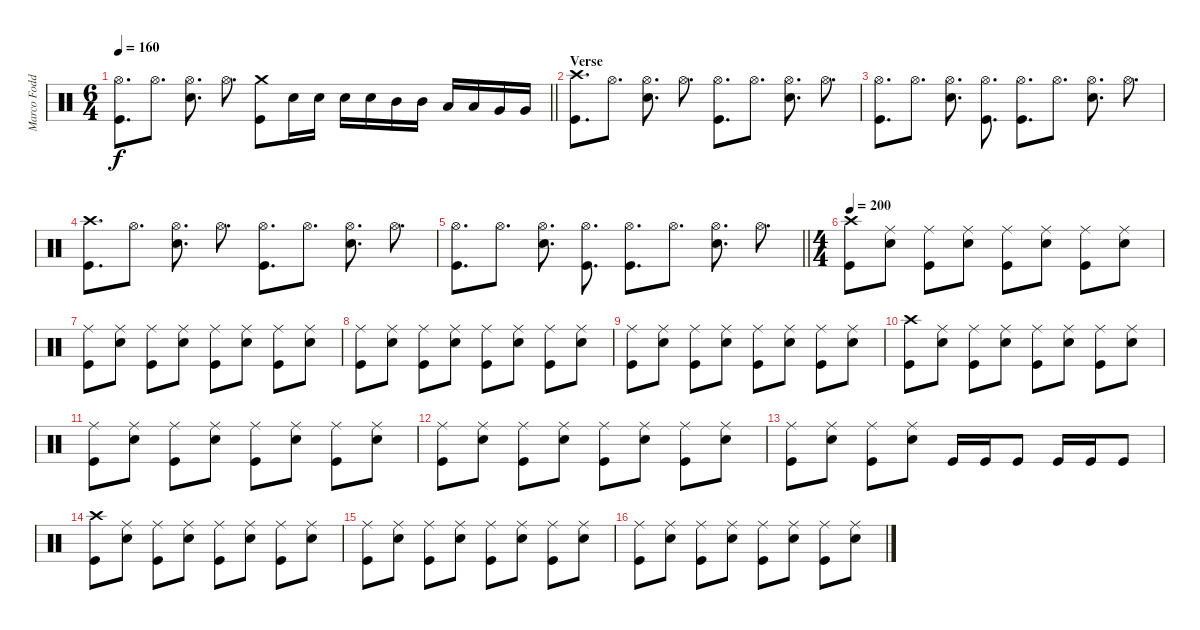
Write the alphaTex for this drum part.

\track ("Marco Foddis" "Marco Fodd") {instrument percussion}
\staff {score}
\articulation defaults
\ts (6 4)
\tempo 160
\clef neutral
\barLineRight lightlight
\ks c
("Hi-Hat (open)" "Kick (hit)").8{d dy f} "Hi-Hat (open)".8{d} ("Hi-Hat (open)" "Snare (hit) 2").8{d} "Hi-Hat (open)".8{d} ("Crash medium (hit)" "Kick (hit)").8 "Snare (hit) 2".16 "Snare (hit) 2".16 "Snare (hit) 2".16 "Snare (hit) 2".16 "Mid Tom (hit)".16 "Mid Tom (hit)".16 "Low Tom (hit)".16 "Low Tom (hit)".16 "Very Low Tom (hit)".16 "Very Low Tom (hit)".16 |
\section ("" "Verse")
("Crash high (hit)" "Kick (hit)").8{d} "Hi-Hat (open)".8{d} ("Hi-Hat (open)" "Snare (hit) 2").8{d} "Hi-Hat (open)".8{d} ("Hi-Hat (open)" "Kick (hit)").8{d} "Hi-Hat (open)".8{d} ("Hi-Hat (open)" "Snare (hit) 2").8{d} "Hi-Hat (open)".8{d} |
("Hi-Hat (open)" "Kick (hit)").8{d} "Hi-Hat (open)".8{d} ("Hi-Hat (open)" "Snare (hit) 2").8{d} ("Hi-Hat (open)" "Kick (hit)").8{d} ("Hi-Hat (open)" "Kick (hit)").8{d} "Hi-Hat (open)".8{d} ("Hi-Hat (open)" "Snare (hit) 2").8{d} "Hi-Hat (open)".8{d} |
("Crash high (hit)" "Kick (hit)").8{d} "Hi-Hat (open)".8{d} ("Hi-Hat (open)" "Snare (hit) 2").8{d} "Hi-Hat (open)".8{d} ("Hi-Hat (open)" "Kick (hit)").8{d} "Hi-Hat (open)".8{d} ("Hi-Hat (open)" "Snare (hit) 2").8{d} "Hi-Hat (open)".8{d} |
\barLineRight lightlight
("Hi-Hat (open)" "Kick (hit)").8{d} "Hi-Hat (open)".8{d} ("Hi-Hat (open)" "Snare (hit) 2").8{d} ("Hi-Hat (open)" "Kick (hit)").8{d} ("Hi-Hat (open)" "Kick (hit)").8{d} "Hi-Hat (open)".8{d} ("Hi-Hat (open)" "Snare (hit) 2").8{d} "Hi-Hat (open)".8{d} |
\ts (4 4)
\tempo 200
("Crash high (hit)" "Kick (hit)").8 ("Ride (middle)" "Snare (hit) 2").8 ("Ride (middle)" "Kick (hit)").8 ("Ride (middle)" "Snare (hit) 2").8 ("Ride (middle)" "Kick (hit)").8 ("Ride (middle)" "Snare (hit) 2").8 ("Ride (middle)" "Kick (hit)").8 ("Ride (middle)" "Snare (hit) 2").8 |
("Ride (middle)" "Kick (hit)").8 ("Ride (middle)" "Snare (hit) 2").8 ("Ride (middle)" "Kick (hit)").8 ("Ride (middle)" "Snare (hit) 2").8 ("Ride (middle)" "Kick (hit)").8 ("Ride (middle)" "Snare (hit) 2").8 ("Ride (middle)" "Kick (hit)").8 ("Ride (middle)" "Snare (hit) 2").8 |
("Ride (middle)" "Kick (hit)").8 ("Ride (middle)" "Snare (hit) 2").8 ("Ride (middle)" "Kick (hit)").8 ("Ride (middle)" "Snare (hit) 2").8 ("Ride (middle)" "Kick (hit)").8 ("Ride (middle)" "Snare (hit) 2").8 ("Ride (middle)" "Kick (hit)").8 ("Ride (middle)" "Snare (hit) 2").8 |
("Ride (middle)" "Kick (hit)").8 ("Ride (middle)" "Snare (hit) 2").8 ("Ride (middle)" "Kick (hit)").8 ("Ride (middle)" "Snare (hit) 2").8 ("Ride (middle)" "Kick (hit)").8 ("Ride (middle)" "Snare (hit) 2").8 ("Ride (middle)" "Kick (hit)").8 ("Ride (middle)" "Snare (hit) 2").8 |
("Crash high (hit)" "Kick (hit)").8 ("Ride (middle)" "Snare (hit) 2").8 ("Ride (middle)" "Kick (hit)").8 ("Ride (middle)" "Snare (hit) 2").8 ("Ride (middle)" "Kick (hit)").8 ("Ride (middle)" "Snare (hit) 2").8 ("Ride (middle)" "Kick (hit)").8 ("Ride (middle)" "Snare (hit) 2").8 |
("Ride (middle)" "Kick (hit)").8 ("Ride (middle)" "Snare (hit) 2").8 ("Ride (middle)" "Kick (hit)").8 ("Ride (middle)" "Snare (hit) 2").8 ("Ride (middle)" "Kick (hit)").8 ("Ride (middle)" "Snare (hit) 2").8 ("Ride (middle)" "Kick (hit)").8 ("Ride (middle)" "Snare (hit) 2").8 |
("Ride (middle)" "Kick (hit)").8 ("Ride (middle)" "Snare (hit) 2").8 ("Ride (middle)" "Kick (hit)").8 ("Ride (middle)" "Snare (hit) 2").8 ("Ride (middle)" "Kick (hit)").8 ("Ride (middle)" "Snare (hit) 2").8 ("Ride (middle)" "Kick (hit)").8 ("Ride (middle)" "Snare (hit) 2").8 |
("Ride (middle)" "Kick (hit)").8 ("Ride (middle)" "Snare (hit) 2").8 ("Ride (middle)" "Kick (hit)").8 ("Ride (middle)" "Snare (hit) 2").8 "Kick (hit)".16 "Kick (hit)".16 "Kick (hit)".8 "Kick (hit)".16 "Kick (hit)".16 "Kick (hit)".8 |
("Crash high (hit)" "Kick (hit)").8 ("Ride (middle)" "Snare (hit) 2").8 ("Ride (middle)" "Kick (hit)").8 ("Ride (middle)" "Snare (hit) 2").8 ("Ride (middle)" "Kick (hit)").8 ("Ride (middle)" "Snare (hit) 2").8 ("Ride (middle)" "Kick (hit)").8 ("Ride (middle)" "Snare (hit) 2").8 |
("Ride (middle)" "Kick (hit)").8 ("Ride (middle)" "Snare (hit) 2").8 ("Ride (middle)" "Kick (hit)").8 ("Ride (middle)" "Snare (hit) 2").8 ("Ride (middle)" "Kick (hit)").8 ("Ride (middle)" "Snare (hit) 2").8 ("Ride (middle)" "Kick (hit)").8 ("Ride (middle)" "Snare (hit) 2").8 |
("Ride (middle)" "Kick (hit)").8 ("Ride (middle)" "Snare (hit) 2").8 ("Ride (middle)" "Kick (hit)").8 ("Ride (middle)" "Snare (hit) 2").8 ("Ride (middle)" "Kick (hit)").8 ("Ride (middle)" "Snare (hit) 2").8 ("Ride (middle)" "Kick (hit)").8 ("Ride (middle)" "Snare (hit) 2").8
